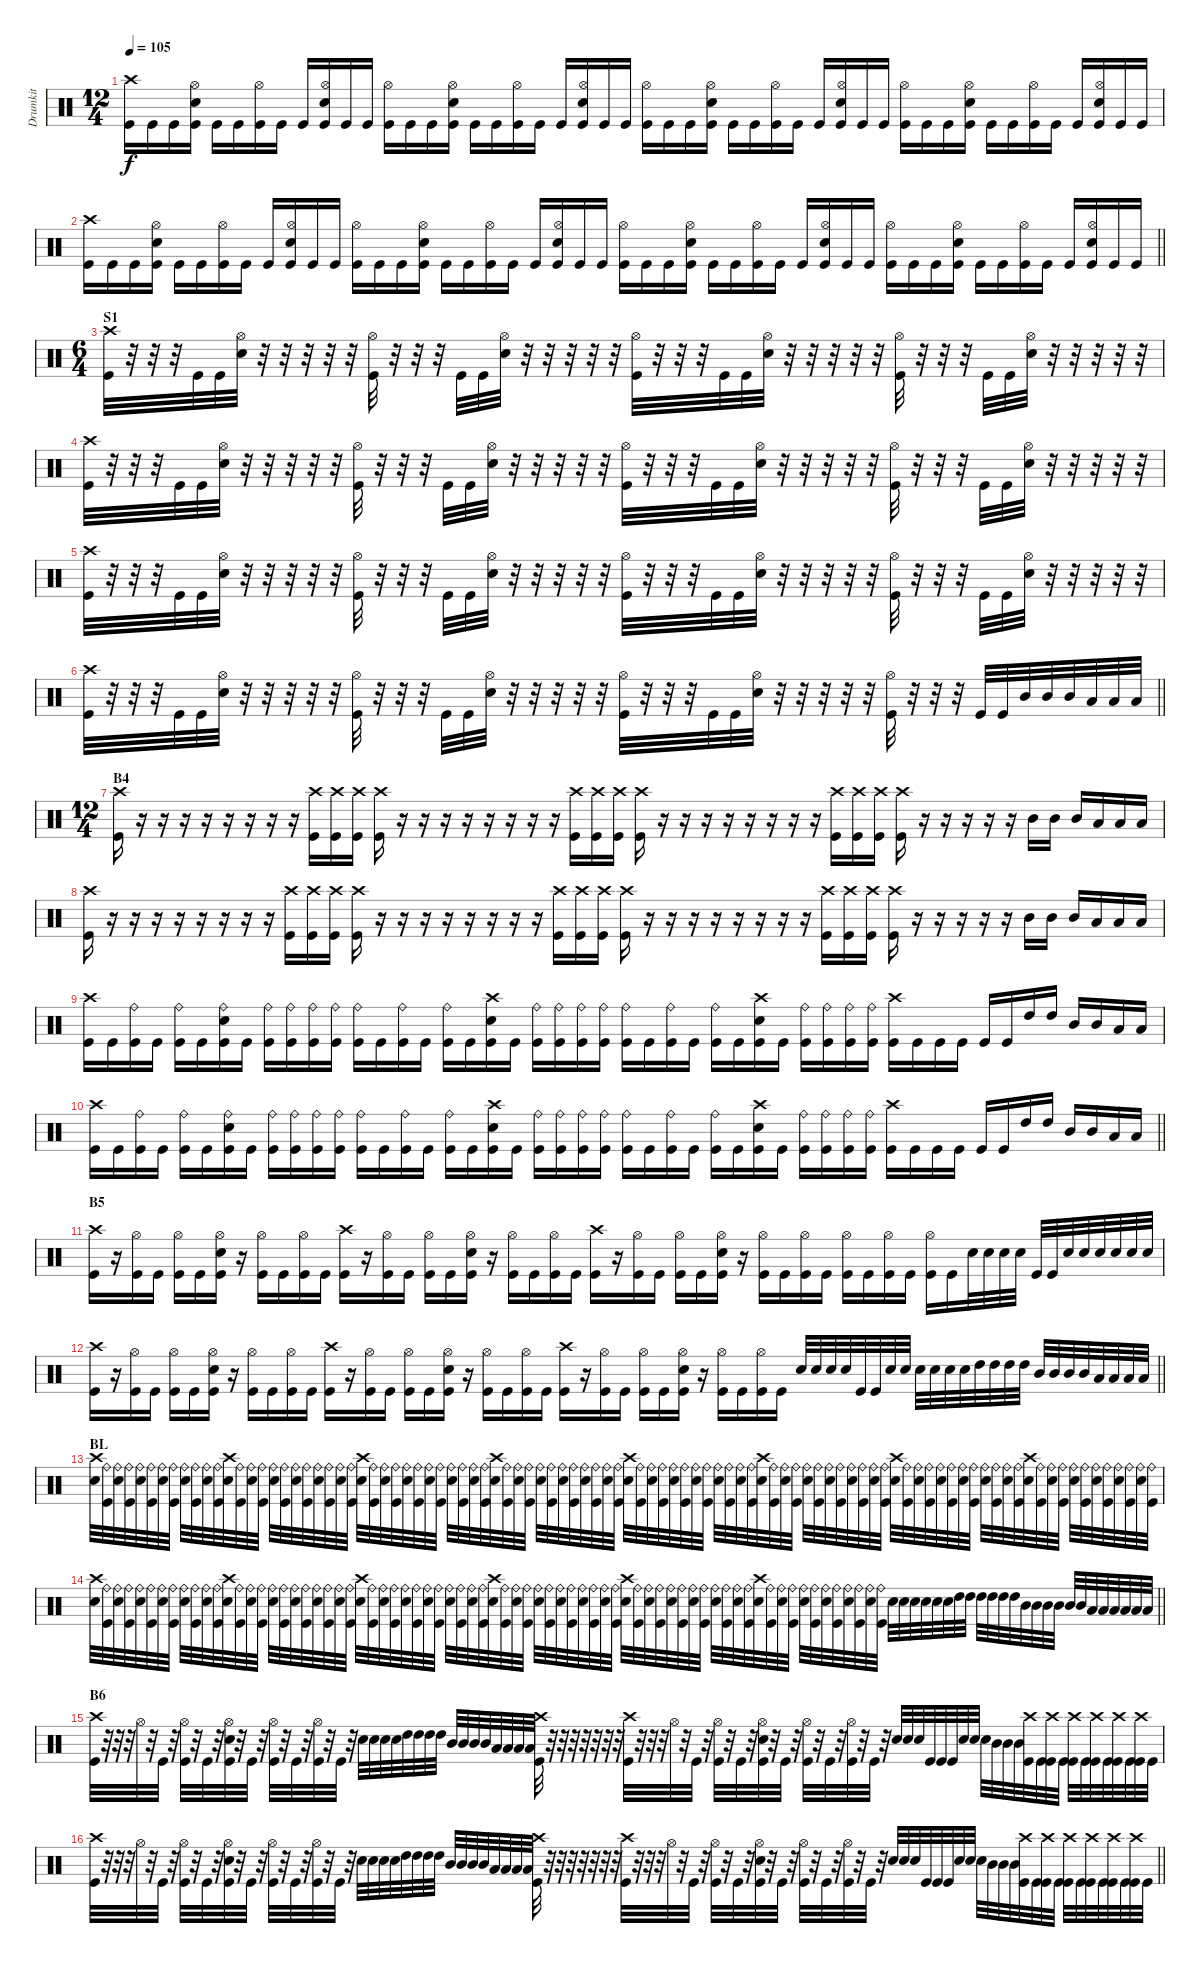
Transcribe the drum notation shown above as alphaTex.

\track ("Drumkit" "Drumkit") {instrument percussion}
\staff {score}
\articulation defaults
\ts (12 4)
\tempo 105
\clef neutral
\ks c
("Crash high (hit)" "Kick (hit)").16{dy f} "Kick (hit)".16 "Kick (hit)".16 ("Hi-Hat (open)" "Snare (hit) 2" "Kick (hit)").16 "Kick (hit)".16 "Kick (hit)".16 ("Hi-Hat (open)" "Kick (hit)").16 "Kick (hit)".16 "Kick (hit)".16 ("Hi-Hat (open)" "Snare (hit) 2" "Kick (hit)").16 "Kick (hit)".16 "Kick (hit)".16 ("Hi-Hat (open)" "Kick (hit)").16 "Kick (hit)".16 "Kick (hit)".16 ("Hi-Hat (open)" "Snare (hit) 2" "Kick (hit)").16 "Kick (hit)".16 "Kick (hit)".16 ("Hi-Hat (open)" "Kick (hit)").16 "Kick (hit)".16 "Kick (hit)".16 ("Hi-Hat (open)" "Snare (hit) 2" "Kick (hit)").16 "Kick (hit)".16 "Kick (hit)".16 ("Hi-Hat (open)" "Kick (hit)").16 "Kick (hit)".16 "Kick (hit)".16 ("Hi-Hat (open)" "Snare (hit) 2" "Kick (hit)").16 "Kick (hit)".16 "Kick (hit)".16 ("Hi-Hat (open)" "Kick (hit)").16 "Kick (hit)".16 "Kick (hit)".16 ("Hi-Hat (open)" "Snare (hit) 2" "Kick (hit)").16 "Kick (hit)".16 "Kick (hit)".16 ("Hi-Hat (open)" "Kick (hit)").16 "Kick (hit)".16 "Kick (hit)".16 ("Hi-Hat (open)" "Snare (hit) 2" "Kick (hit)").16 "Kick (hit)".16 "Kick (hit)".16 ("Hi-Hat (open)" "Kick (hit)").16 "Kick (hit)".16 "Kick (hit)".16 ("Hi-Hat (open)" "Snare (hit) 2" "Kick (hit)").16 "Kick (hit)".16 "Kick (hit)".16 |
\barLineRight lightlight
("Crash high (hit)" "Kick (hit)").16 "Kick (hit)".16 "Kick (hit)".16 ("Hi-Hat (open)" "Snare (hit) 2" "Kick (hit)").16 "Kick (hit)".16 "Kick (hit)".16 ("Hi-Hat (open)" "Kick (hit)").16 "Kick (hit)".16 "Kick (hit)".16 ("Hi-Hat (open)" "Snare (hit) 2" "Kick (hit)").16 "Kick (hit)".16 "Kick (hit)".16 ("Hi-Hat (open)" "Kick (hit)").16 "Kick (hit)".16 "Kick (hit)".16 ("Hi-Hat (open)" "Snare (hit) 2" "Kick (hit)").16 "Kick (hit)".16 "Kick (hit)".16 ("Hi-Hat (open)" "Kick (hit)").16 "Kick (hit)".16 "Kick (hit)".16 ("Hi-Hat (open)" "Snare (hit) 2" "Kick (hit)").16 "Kick (hit)".16 "Kick (hit)".16 ("Hi-Hat (open)" "Kick (hit)").16 "Kick (hit)".16 "Kick (hit)".16 ("Hi-Hat (open)" "Snare (hit) 2" "Kick (hit)").16 "Kick (hit)".16 "Kick (hit)".16 ("Hi-Hat (open)" "Kick (hit)").16 "Kick (hit)".16 "Kick (hit)".16 ("Hi-Hat (open)" "Snare (hit) 2" "Kick (hit)").16 "Kick (hit)".16 "Kick (hit)".16 ("Hi-Hat (open)" "Kick (hit)").16 "Kick (hit)".16 "Kick (hit)".16 ("Hi-Hat (open)" "Snare (hit) 2" "Kick (hit)").16 "Kick (hit)".16 "Kick (hit)".16 ("Hi-Hat (open)" "Kick (hit)").16 "Kick (hit)".16 "Kick (hit)".16 ("Hi-Hat (open)" "Snare (hit) 2" "Kick (hit)").16 "Kick (hit)".16 "Kick (hit)".16 |
\ts (6 4)
\section ("" "S1")
("Crash high (hit)" "Kick (hit)").32 r.32 r.32 r.32 "Kick (hit)".32 "Kick (hit)".32 ("Hi-Hat (open)" "Snare (hit) 2").32 r.32 r.32 r.32 r.32 r.32 ("Hi-Hat (open)" "Kick (hit)").32 r.32 r.32 r.32 "Kick (hit)".32 "Kick (hit)".32 ("Hi-Hat (open)" "Snare (hit) 2").32 r.32 r.32 r.32 r.32 r.32 ("Hi-Hat (open)" "Kick (hit)").32 r.32 r.32 r.32 "Kick (hit)".32 "Kick (hit)".32 ("Hi-Hat (open)" "Snare (hit) 2").32 r.32 r.32 r.32 r.32 r.32 ("Hi-Hat (open)" "Kick (hit)").32 r.32 r.32 r.32 "Kick (hit)".32 "Kick (hit)".32 ("Hi-Hat (open)" "Snare (hit) 2").32 r.32 r.32 r.32 r.32 r.32 |
("Crash high (hit)" "Kick (hit)").32 r.32 r.32 r.32 "Kick (hit)".32 "Kick (hit)".32 ("Hi-Hat (open)" "Snare (hit) 2").32 r.32 r.32 r.32 r.32 r.32 ("Hi-Hat (open)" "Kick (hit)").32 r.32 r.32 r.32 "Kick (hit)".32 "Kick (hit)".32 ("Hi-Hat (open)" "Snare (hit) 2").32 r.32 r.32 r.32 r.32 r.32 ("Hi-Hat (open)" "Kick (hit)").32 r.32 r.32 r.32 "Kick (hit)".32 "Kick (hit)".32 ("Hi-Hat (open)" "Snare (hit) 2").32 r.32 r.32 r.32 r.32 r.32 ("Hi-Hat (open)" "Kick (hit)").32 r.32 r.32 r.32 "Kick (hit)".32 "Kick (hit)".32 ("Hi-Hat (open)" "Snare (hit) 2").32 r.32 r.32 r.32 r.32 r.32 |
("Crash high (hit)" "Kick (hit)").32 r.32 r.32 r.32 "Kick (hit)".32 "Kick (hit)".32 ("Hi-Hat (open)" "Snare (hit) 2").32 r.32 r.32 r.32 r.32 r.32 ("Hi-Hat (open)" "Kick (hit)").32 r.32 r.32 r.32 "Kick (hit)".32 "Kick (hit)".32 ("Hi-Hat (open)" "Snare (hit) 2").32 r.32 r.32 r.32 r.32 r.32 ("Hi-Hat (open)" "Kick (hit)").32 r.32 r.32 r.32 "Kick (hit)".32 "Kick (hit)".32 ("Hi-Hat (open)" "Snare (hit) 2").32 r.32 r.32 r.32 r.32 r.32 ("Hi-Hat (open)" "Kick (hit)").32 r.32 r.32 r.32 "Kick (hit)".32 "Kick (hit)".32 ("Hi-Hat (open)" "Snare (hit) 2").32 r.32 r.32 r.32 r.32 r.32 |
\barLineRight lightlight
("Crash high (hit)" "Kick (hit)").32 r.32 r.32 r.32 "Kick (hit)".32 "Kick (hit)".32 ("Hi-Hat (open)" "Snare (hit) 2").32 r.32 r.32 r.32 r.32 r.32 ("Hi-Hat (open)" "Kick (hit)").32 r.32 r.32 r.32 "Kick (hit)".32 "Kick (hit)".32 ("Hi-Hat (open)" "Snare (hit) 2").32 r.32 r.32 r.32 r.32 r.32 ("Hi-Hat (open)" "Kick (hit)").32 r.32 r.32 r.32 "Kick (hit)".32 "Kick (hit)".32 ("Hi-Hat (open)" "Snare (hit) 2").32 r.32 r.32 r.32 r.32 r.32 ("Hi-Hat (open)" "Kick (hit)").32 r.32 r.32 r.32 "Kick (hit)".32 "Kick (hit)".32 "Mid Tom (hit)".32 "Mid Tom (hit)".32 "Mid Tom (hit)".32 "Low Tom (hit)".32 "Low Tom (hit)".32 "Low Tom (hit)".32 |
\ts (12 4)
\section ("" "B4")
("Crash high (hit)" "Kick (hit)").16 r.16 r.16 r.16 r.16 r.16 r.16 r.16 r.16 ("Crash high (hit)" "Kick (hit)").16 ("Crash high (hit)" "Kick (hit)").16 ("Crash high (hit)" "Kick (hit)").16 ("Crash high (hit)" "Kick (hit)").16 r.16 r.16 r.16 r.16 r.16 r.16 r.16 r.16 ("Crash high (hit)" "Kick (hit)").16 ("Crash high (hit)" "Kick (hit)").16 ("Crash high (hit)" "Kick (hit)").16 ("Crash high (hit)" "Kick (hit)").16 r.16 r.16 r.16 r.16 r.16 r.16 r.16 r.16 ("Crash high (hit)" "Kick (hit)").16 ("Crash high (hit)" "Kick (hit)").16 ("Crash high (hit)" "Kick (hit)").16 ("Crash high (hit)" "Kick (hit)").16 r.16 r.16 r.16 r.16 r.16 "Mid Tom (hit)".16 "Mid Tom (hit)".16 "Mid Tom (hit)".16 "Low Tom (hit)".16 "Low Tom (hit)".16 "Low Tom (hit)".16 |
("Crash high (hit)" "Kick (hit)").16 r.16 r.16 r.16 r.16 r.16 r.16 r.16 r.16 ("Crash high (hit)" "Kick (hit)").16 ("Crash high (hit)" "Kick (hit)").16 ("Crash high (hit)" "Kick (hit)").16 ("Crash high (hit)" "Kick (hit)").16 r.16 r.16 r.16 r.16 r.16 r.16 r.16 r.16 ("Crash high (hit)" "Kick (hit)").16 ("Crash high (hit)" "Kick (hit)").16 ("Crash high (hit)" "Kick (hit)").16 ("Crash high (hit)" "Kick (hit)").16 r.16 r.16 r.16 r.16 r.16 r.16 r.16 r.16 ("Crash high (hit)" "Kick (hit)").16 ("Crash high (hit)" "Kick (hit)").16 ("Crash high (hit)" "Kick (hit)").16 ("Crash high (hit)" "Kick (hit)").16 r.16 r.16 r.16 r.16 r.16 "Mid Tom (hit)".16 "Mid Tom (hit)".16 "Mid Tom (hit)".16 "Low Tom (hit)".16 "Low Tom (hit)".16 "Low Tom (hit)".16 |
("Crash high (hit)" "Kick (hit)").16 "Kick (hit)".16 ("Ride (bell)" "Kick (hit)").16 "Kick (hit)".16 ("Ride (bell)" "Kick (hit)").16 "Kick (hit)".16 ("Ride (bell)" "Snare (hit) 2" "Kick (hit)").16 "Kick (hit)".16 ("Ride (bell)" "Kick (hit)").16 ("Ride (bell)" "Kick (hit)").16 ("Ride (bell)" "Kick (hit)").16 ("Ride (bell)" "Kick (hit)").16 ("Ride (bell)" "Kick (hit)").16 "Kick (hit)".16 ("Ride (bell)" "Kick (hit)").16 "Kick (hit)".16 ("Ride (bell)" "Kick (hit)").16 "Kick (hit)".16 ("Crash high (hit)" "Snare (hit) 2" "Kick (hit)").16 "Kick (hit)".16 ("Ride (bell)" "Kick (hit)").16 ("Ride (bell)" "Kick (hit)").16 ("Ride (bell)" "Kick (hit)").16 ("Ride (bell)" "Kick (hit)").16 ("Ride (bell)" "Kick (hit)").16 "Kick (hit)".16 ("Ride (bell)" "Kick (hit)").16 "Kick (hit)".16 ("Ride (bell)" "Kick (hit)").16 "Kick (hit)".16 ("Crash high (hit)" "Snare (hit) 2" "Kick (hit)").16 "Kick (hit)".16 ("Ride (bell)" "Kick (hit)").16 ("Ride (bell)" "Kick (hit)").16 ("Ride (bell)" "Kick (hit)").16 ("Ride (bell)" "Kick (hit)").16 ("Crash high (hit)" "Kick (hit)").16 "Kick (hit)".16 "Kick (hit)".16 "Kick (hit)".16 "Kick (hit)".16 "Kick (hit)".16 "High Tom (hit)".16 "High Tom (hit)".16 "Mid Tom (hit)".16 "Mid Tom (hit)".16 "Low Tom (hit)".16 "Low Tom (hit)".16 |
\barLineRight lightlight
("Crash high (hit)" "Kick (hit)").16 "Kick (hit)".16 ("Ride (bell)" "Kick (hit)").16 "Kick (hit)".16 ("Ride (bell)" "Kick (hit)").16 "Kick (hit)".16 ("Ride (bell)" "Snare (hit) 2" "Kick (hit)").16 "Kick (hit)".16 ("Ride (bell)" "Kick (hit)").16 ("Ride (bell)" "Kick (hit)").16 ("Ride (bell)" "Kick (hit)").16 ("Ride (bell)" "Kick (hit)").16 ("Ride (bell)" "Kick (hit)").16 "Kick (hit)".16 ("Ride (bell)" "Kick (hit)").16 "Kick (hit)".16 ("Ride (bell)" "Kick (hit)").16 "Kick (hit)".16 ("Crash high (hit)" "Snare (hit) 2" "Kick (hit)").16 "Kick (hit)".16 ("Ride (bell)" "Kick (hit)").16 ("Ride (bell)" "Kick (hit)").16 ("Ride (bell)" "Kick (hit)").16 ("Ride (bell)" "Kick (hit)").16 ("Ride (bell)" "Kick (hit)").16 "Kick (hit)".16 ("Ride (bell)" "Kick (hit)").16 "Kick (hit)".16 ("Ride (bell)" "Kick (hit)").16 "Kick (hit)".16 ("Crash high (hit)" "Snare (hit) 2" "Kick (hit)").16 "Kick (hit)".16 ("Ride (bell)" "Kick (hit)").16 ("Ride (bell)" "Kick (hit)").16 ("Ride (bell)" "Kick (hit)").16 ("Ride (bell)" "Kick (hit)").16 ("Crash high (hit)" "Kick (hit)").16 "Kick (hit)".16 "Kick (hit)".16 "Kick (hit)".16 "Kick (hit)".16 "Kick (hit)".16 "High Tom (hit)".16 "High Tom (hit)".16 "Mid Tom (hit)".16 "Mid Tom (hit)".16 "Low Tom (hit)".16 "Low Tom (hit)".16 |
\section ("" "B5")
("Crash high (hit)" "Kick (hit)").16 r.16 ("Hi-Hat (open)" "Kick (hit)").16 "Kick (hit)".16 ("Hi-Hat (open)" "Kick (hit)").16 "Kick (hit)".16 ("Hi-Hat (open)" "Snare (hit) 2" "Kick (hit)").16 r.16 ("Hi-Hat (open)" "Kick (hit)").16 "Kick (hit)".16 ("Hi-Hat (open)" "Kick (hit)").16 "Kick (hit)".16 ("Crash high (hit)" "Kick (hit)").16 r.16 ("Hi-Hat (open)" "Kick (hit)").16 "Kick (hit)".16 ("Hi-Hat (open)" "Kick (hit)").16 "Kick (hit)".16 ("Hi-Hat (open)" "Snare (hit) 2" "Kick (hit)").16 r.16 ("Hi-Hat (open)" "Kick (hit)").16 "Kick (hit)".16 ("Hi-Hat (open)" "Kick (hit)").16 "Kick (hit)".16 ("Crash high (hit)" "Kick (hit)").16 r.16 ("Hi-Hat (open)" "Kick (hit)").16 "Kick (hit)".16 ("Hi-Hat (open)" "Kick (hit)").16 "Kick (hit)".16 ("Hi-Hat (open)" "Snare (hit) 2" "Kick (hit)").16 r.16 ("Hi-Hat (open)" "Kick (hit)").16 "Kick (hit)".16 ("Hi-Hat (open)" "Kick (hit)").16 "Kick (hit)".16 ("Hi-Hat (open)" "Kick (hit)").16 "Kick (hit)".16 ("Hi-Hat (open)" "Kick (hit)").16 "Kick (hit)".16 ("Hi-Hat (open)" "Kick (hit)").16 "Kick (hit)".16 "Snare (hit) 2".32 "Snare (hit) 2".32 "Snare (hit) 2".32 "Snare (hit) 2".32 "Kick (hit)".32 "Kick (hit)".32 "Snare (hit) 2".32 "Snare (hit) 2".32 "Snare (hit) 2".32 "Snare (hit) 2".32 "Snare (hit) 2".32 "Snare (hit) 2".32 |
\barLineRight lightlight
("Crash high (hit)" "Kick (hit)").16 r.16 ("Hi-Hat (open)" "Kick (hit)").16 "Kick (hit)".16 ("Hi-Hat (open)" "Kick (hit)").16 "Kick (hit)".16 ("Hi-Hat (open)" "Snare (hit) 2" "Kick (hit)").16 r.16 ("Hi-Hat (open)" "Kick (hit)").16 "Kick (hit)".16 ("Hi-Hat (open)" "Kick (hit)").16 "Kick (hit)".16 ("Crash high (hit)" "Kick (hit)").16 r.16 ("Hi-Hat (open)" "Kick (hit)").16 "Kick (hit)".16 ("Hi-Hat (open)" "Kick (hit)").16 "Kick (hit)".16 ("Hi-Hat (open)" "Snare (hit) 2" "Kick (hit)").16 r.16 ("Hi-Hat (open)" "Kick (hit)").16 "Kick (hit)".16 ("Hi-Hat (open)" "Kick (hit)").16 "Kick (hit)".16 ("Crash high (hit)" "Kick (hit)").16 r.16 ("Hi-Hat (open)" "Kick (hit)").16 "Kick (hit)".16 ("Hi-Hat (open)" "Kick (hit)").16 "Kick (hit)".16 ("Hi-Hat (open)" "Snare (hit) 2" "Kick (hit)").16 r.16 ("Hi-Hat (open)" "Kick (hit)").16 "Kick (hit)".16 ("Hi-Hat (open)" "Kick (hit)").16 "Kick (hit)".16 "Snare (hit) 2".32 "Snare (hit) 2".32 "Snare (hit) 2".32 "Snare (hit) 2".32 "Kick (hit)".32 "Kick (hit)".32 "Snare (hit) 2".32 "Snare (hit) 2".32 "Snare (hit) 2".32 "Snare (hit) 2".32 "Snare (hit) 2".32 "Snare (hit) 2".32 "High Tom (hit)".32 "High Tom (hit)".32 "High Tom (hit)".32 "High Tom (hit)".32 "Mid Tom (hit)".32 "Mid Tom (hit)".32 "Mid Tom (hit)".32 "Mid Tom (hit)".32 "Low Tom (hit)".32 "Low Tom (hit)".32 "Low Tom (hit)".32 "Low Tom (hit)".32 |
\section ("" "BL")
("Crash high (hit)" "Snare (hit) 2").32 ("Ride (bell)" "Kick (hit)").32 ("Ride (bell)" "Snare (hit) 2").32 ("Ride (bell)" "Kick (hit)").32 ("Ride (bell)" "Snare (hit) 2").32 ("Ride (bell)" "Kick (hit)").32 ("Ride (bell)" "Snare (hit) 2").32 ("Ride (bell)" "Kick (hit)").32 ("Ride (bell)" "Snare (hit) 2").32 ("Ride (bell)" "Kick (hit)").32 ("Ride (bell)" "Snare (hit) 2").32 ("Ride (bell)" "Kick (hit)").32 ("Crash high (hit)" "Snare (hit) 2").32 ("Ride (bell)" "Kick (hit)").32 ("Ride (bell)" "Snare (hit) 2").32 ("Ride (bell)" "Kick (hit)").32 ("Ride (bell)" "Snare (hit) 2").32 ("Ride (bell)" "Kick (hit)").32 ("Ride (bell)" "Snare (hit) 2").32 ("Ride (bell)" "Kick (hit)").32 ("Ride (bell)" "Snare (hit) 2").32 ("Ride (bell)" "Kick (hit)").32 ("Ride (bell)" "Snare (hit) 2").32 ("Ride (bell)" "Kick (hit)").32 ("Crash high (hit)" "Snare (hit) 2").32 ("Ride (bell)" "Kick (hit)").32 ("Ride (bell)" "Snare (hit) 2").32 ("Ride (bell)" "Kick (hit)").32 ("Ride (bell)" "Snare (hit) 2").32 ("Ride (bell)" "Kick (hit)").32 ("Ride (bell)" "Snare (hit) 2").32 ("Ride (bell)" "Kick (hit)").32 ("Ride (bell)" "Snare (hit) 2").32 ("Ride (bell)" "Kick (hit)").32 ("Ride (bell)" "Snare (hit) 2").32 ("Ride (bell)" "Kick (hit)").32 ("Crash high (hit)" "Snare (hit) 2").32 ("Ride (bell)" "Kick (hit)").32 ("Ride (bell)" "Snare (hit) 2").32 ("Ride (bell)" "Kick (hit)").32 ("Ride (bell)" "Snare (hit) 2").32 ("Ride (bell)" "Kick (hit)").32 ("Ride (bell)" "Snare (hit) 2").32 ("Ride (bell)" "Kick (hit)").32 ("Ride (bell)" "Snare (hit) 2").32 ("Ride (bell)" "Kick (hit)").32 ("Ride (bell)" "Snare (hit) 2").32 ("Ride (bell)" "Kick (hit)").32 ("Crash high (hit)" "Snare (hit) 2").32 ("Ride (bell)" "Kick (hit)").32 ("Ride (bell)" "Snare (hit) 2").32 ("Ride (bell)" "Kick (hit)").32 ("Ride (bell)" "Snare (hit) 2").32 ("Ride (bell)" "Kick (hit)").32 ("Ride (bell)" "Snare (hit) 2").32 ("Ride (bell)" "Kick (hit)").32 ("Ride (bell)" "Snare (hit) 2").32 ("Ride (bell)" "Kick (hit)").32 ("Ride (bell)" "Snare (hit) 2").32 ("Ride (bell)" "Kick (hit)").32 ("Crash high (hit)" "Snare (hit) 2").32 ("Ride (bell)" "Kick (hit)").32 ("Ride (bell)" "Snare (hit) 2").32 ("Ride (bell)" "Kick (hit)").32 ("Ride (bell)" "Snare (hit) 2").32 ("Ride (bell)" "Kick (hit)").32 ("Ride (bell)" "Snare (hit) 2").32 ("Ride (bell)" "Kick (hit)").32 ("Ride (bell)" "Snare (hit) 2").32 ("Ride (bell)" "Kick (hit)").32 ("Ride (bell)" "Snare (hit) 2").32 ("Ride (bell)" "Kick (hit)").32 ("Crash high (hit)" "Snare (hit) 2").32 ("Ride (bell)" "Kick (hit)").32 ("Ride (bell)" "Snare (hit) 2").32 ("Ride (bell)" "Kick (hit)").32 ("Ride (bell)" "Snare (hit) 2").32 ("Ride (bell)" "Kick (hit)").32 ("Ride (bell)" "Snare (hit) 2").32 ("Ride (bell)" "Kick (hit)").32 ("Ride (bell)" "Snare (hit) 2").32 ("Ride (bell)" "Kick (hit)").32 ("Ride (bell)" "Snare (hit) 2").32 ("Ride (bell)" "Kick (hit)").32 ("Crash high (hit)" "Snare (hit) 2").32 ("Ride (bell)" "Kick (hit)").32 ("Ride (bell)" "Snare (hit) 2").32 ("Ride (bell)" "Kick (hit)").32 ("Ride (bell)" "Snare (hit) 2").32 ("Ride (bell)" "Kick (hit)").32 ("Ride (bell)" "Snare (hit) 2").32 ("Ride (bell)" "Kick (hit)").32 ("Ride (bell)" "Snare (hit) 2").32 ("Ride (bell)" "Kick (hit)").32 ("Ride (bell)" "Snare (hit) 2").32 ("Ride (bell)" "Kick (hit)").32 |
\barLineRight lightlight
("Crash high (hit)" "Snare (hit) 2").32 ("Ride (bell)" "Kick (hit)").32 ("Ride (bell)" "Snare (hit) 2").32 ("Ride (bell)" "Kick (hit)").32 ("Ride (bell)" "Snare (hit) 2").32 ("Ride (bell)" "Kick (hit)").32 ("Ride (bell)" "Snare (hit) 2").32 ("Ride (bell)" "Kick (hit)").32 ("Ride (bell)" "Snare (hit) 2").32 ("Ride (bell)" "Kick (hit)").32 ("Ride (bell)" "Snare (hit) 2").32 ("Ride (bell)" "Kick (hit)").32 ("Crash high (hit)" "Snare (hit) 2").32 ("Ride (bell)" "Kick (hit)").32 ("Ride (bell)" "Snare (hit) 2").32 ("Ride (bell)" "Kick (hit)").32 ("Ride (bell)" "Snare (hit) 2").32 ("Ride (bell)" "Kick (hit)").32 ("Ride (bell)" "Snare (hit) 2").32 ("Ride (bell)" "Kick (hit)").32 ("Ride (bell)" "Snare (hit) 2").32 ("Ride (bell)" "Kick (hit)").32 ("Ride (bell)" "Snare (hit) 2").32 ("Ride (bell)" "Kick (hit)").32 ("Crash high (hit)" "Snare (hit) 2").32 ("Ride (bell)" "Kick (hit)").32 ("Ride (bell)" "Snare (hit) 2").32 ("Ride (bell)" "Kick (hit)").32 ("Ride (bell)" "Snare (hit) 2").32 ("Ride (bell)" "Kick (hit)").32 ("Ride (bell)" "Snare (hit) 2").32 ("Ride (bell)" "Kick (hit)").32 ("Ride (bell)" "Snare (hit) 2").32 ("Ride (bell)" "Kick (hit)").32 ("Ride (bell)" "Snare (hit) 2").32 ("Ride (bell)" "Kick (hit)").32 ("Crash high (hit)" "Snare (hit) 2").32 ("Ride (bell)" "Kick (hit)").32 ("Ride (bell)" "Snare (hit) 2").32 ("Ride (bell)" "Kick (hit)").32 ("Ride (bell)" "Snare (hit) 2").32 ("Ride (bell)" "Kick (hit)").32 ("Ride (bell)" "Snare (hit) 2").32 ("Ride (bell)" "Kick (hit)").32 ("Ride (bell)" "Snare (hit) 2").32 ("Ride (bell)" "Kick (hit)").32 ("Ride (bell)" "Snare (hit) 2").32 ("Ride (bell)" "Kick (hit)").32 ("Crash high (hit)" "Snare (hit) 2").32 ("Ride (bell)" "Kick (hit)").32 ("Ride (bell)" "Snare (hit) 2").32 ("Ride (bell)" "Kick (hit)").32 ("Ride (bell)" "Snare (hit) 2").32 ("Ride (bell)" "Kick (hit)").32 ("Ride (bell)" "Snare (hit) 2").32 ("Ride (bell)" "Kick (hit)").32 ("Ride (bell)" "Snare (hit) 2").32 ("Ride (bell)" "Kick (hit)").32 ("Ride (bell)" "Snare (hit) 2").32 ("Ride (bell)" "Kick (hit)").32 ("Crash high (hit)" "Snare (hit) 2").32 ("Ride (bell)" "Kick (hit)").32 ("Ride (bell)" "Snare (hit) 2").32 ("Ride (bell)" "Kick (hit)").32 ("Ride (bell)" "Snare (hit) 2").32 ("Ride (bell)" "Kick (hit)").32 ("Ride (bell)" "Snare (hit) 2").32 ("Ride (bell)" "Kick (hit)").32 ("Ride (bell)" "Snare (hit) 2").32 ("Ride (bell)" "Kick (hit)").32 ("Ride (bell)" "Snare (hit) 2").32 ("Ride (bell)" "Kick (hit)").32 "Snare (hit) 2".32 "Snare (hit) 2".32 "Snare (hit) 2".32 "Snare (hit) 2".32 "Snare (hit) 2".32 "Snare (hit) 2".32 "High Tom (hit)".32 "High Tom (hit)".32 "High Tom (hit)".32 "High Tom (hit)".32 "High Tom (hit)".32 "High Tom (hit)".32 "Mid Tom (hit)".32 "Mid Tom (hit)".32 "Mid Tom (hit)".32 "Mid Tom (hit)".32 "Mid Tom (hit)".32 "Mid Tom (hit)".32 "Low Tom (hit)".32 "Low Tom (hit)".32 "Low Tom (hit)".32 "Low Tom (hit)".32 "Low Tom (hit)".32 "Low Tom (hit)".32 |
\section ("" "B6")
("Crash high (hit)" "Kick (hit)").32 r.32 r.32 r.32 "Hi-Hat (open)".32 r.32 "Kick (hit)".32 r.32 ("Hi-Hat (open)" "Kick (hit)").32 r.32 "Kick (hit)".32 r.32 ("Hi-Hat (open)" "Snare (hit) 2" "Kick (hit)").32 r.32 "Kick (hit)".32 r.32 ("Hi-Hat (open)" "Kick (hit)").32 r.32 "Kick (hit)".32 r.32 ("Hi-Hat (open)" "Kick (hit)").32 r.32 "Kick (hit)".32 r.32 "Snare (hit) 2".32 "Snare (hit) 2".32 "Snare (hit) 2".32 "Snare (hit) 2".32 "High Tom (hit)".32 "High Tom (hit)".32 "High Tom (hit)".32 "High Tom (hit)".32 "Mid Tom (hit)".32 "Mid Tom (hit)".32 "Mid Tom (hit)".32 "Mid Tom (hit)".32 "Low Tom (hit)".32 "Low Tom (hit)".32 "Low Tom (hit)".32 "Low Tom (hit)".32 ("Crash high (hit)" "Kick (hit)").32 r.32 r.32 r.32 r.32 r.32 r.32 r.32 ("Crash high (hit)" "Kick (hit)").32 r.32 r.32 r.32 "Hi-Hat (open)".32 r.32 "Kick (hit)".32 r.32 ("Hi-Hat (open)" "Kick (hit)").32 r.32 "Kick (hit)".32 r.32 ("Hi-Hat (open)" "Snare (hit) 2" "Kick (hit)").32 r.32 "Kick (hit)".32 r.32 ("Hi-Hat (open)" "Kick (hit)").32 r.32 "Kick (hit)".32 r.32 ("Hi-Hat (open)" "Kick (hit)").32 r.32 "Kick (hit)".32 r.32 "Snare (hit) 2".32 "Snare (hit) 2".32 "Snare (hit) 2".32 "Kick (hit)".32 "Kick (hit)".32 "Kick (hit)".32 "Snare (hit) 2".32 "Snare (hit) 2".32 "Snare (hit) 2".32 "Mid Tom (hit)".32 "Mid Tom (hit)".32 "Mid Tom (hit)".32 ("Crash high (hit)" "Kick (hit)").32 "Kick (hit)".32 ("Crash high (hit)" "Kick (hit)").32 "Kick (hit)".32 ("Crash high (hit)" "Kick (hit)").32 "Kick (hit)".32 ("Crash high (hit)" "Kick (hit)").32 "Kick (hit)".32 ("Crash high (hit)" "Kick (hit)").32 "Kick (hit)".32 ("Crash high (hit)" "Kick (hit)").32 "Kick (hit)".32 |
\barLineRight lightlight
("Crash high (hit)" "Kick (hit)").32 r.32 r.32 r.32 "Hi-Hat (open)".32 r.32 "Kick (hit)".32 r.32 ("Hi-Hat (open)" "Kick (hit)").32 r.32 "Kick (hit)".32 r.32 ("Hi-Hat (open)" "Snare (hit) 2" "Kick (hit)").32 r.32 "Kick (hit)".32 r.32 ("Hi-Hat (open)" "Kick (hit)").32 r.32 "Kick (hit)".32 r.32 ("Hi-Hat (open)" "Kick (hit)").32 r.32 "Kick (hit)".32 r.32 "Snare (hit) 2".32 "Snare (hit) 2".32 "Snare (hit) 2".32 "Snare (hit) 2".32 "High Tom (hit)".32 "High Tom (hit)".32 "High Tom (hit)".32 "High Tom (hit)".32 "Mid Tom (hit)".32 "Mid Tom (hit)".32 "Mid Tom (hit)".32 "Mid Tom (hit)".32 "Low Tom (hit)".32 "Low Tom (hit)".32 "Low Tom (hit)".32 "Low Tom (hit)".32 ("Crash high (hit)" "Kick (hit)").32 r.32 r.32 r.32 r.32 r.32 r.32 r.32 ("Crash high (hit)" "Kick (hit)").32 r.32 r.32 r.32 "Hi-Hat (open)".32 r.32 "Kick (hit)".32 r.32 ("Hi-Hat (open)" "Kick (hit)").32 r.32 "Kick (hit)".32 r.32 ("Hi-Hat (open)" "Snare (hit) 2" "Kick (hit)").32 r.32 "Kick (hit)".32 r.32 ("Hi-Hat (open)" "Kick (hit)").32 r.32 "Kick (hit)".32 r.32 ("Hi-Hat (open)" "Kick (hit)").32 r.32 "Kick (hit)".32 r.32 "Snare (hit) 2".32 "Snare (hit) 2".32 "Snare (hit) 2".32 "Kick (hit)".32 "Kick (hit)".32 "Kick (hit)".32 "Snare (hit) 2".32 "Snare (hit) 2".32 "Snare (hit) 2".32 "Mid Tom (hit)".32 "Mid Tom (hit)".32 "Mid Tom (hit)".32 ("Crash high (hit)" "Kick (hit)").32 "Kick (hit)".32 ("Crash high (hit)" "Kick (hit)").32 "Kick (hit)".32 ("Crash high (hit)" "Kick (hit)").32 "Kick (hit)".32 ("Crash high (hit)" "Kick (hit)").32 "Kick (hit)".32 ("Crash high (hit)" "Kick (hit)").32 "Kick (hit)".32 ("Crash high (hit)" "Kick (hit)").32 "Kick (hit)".32
